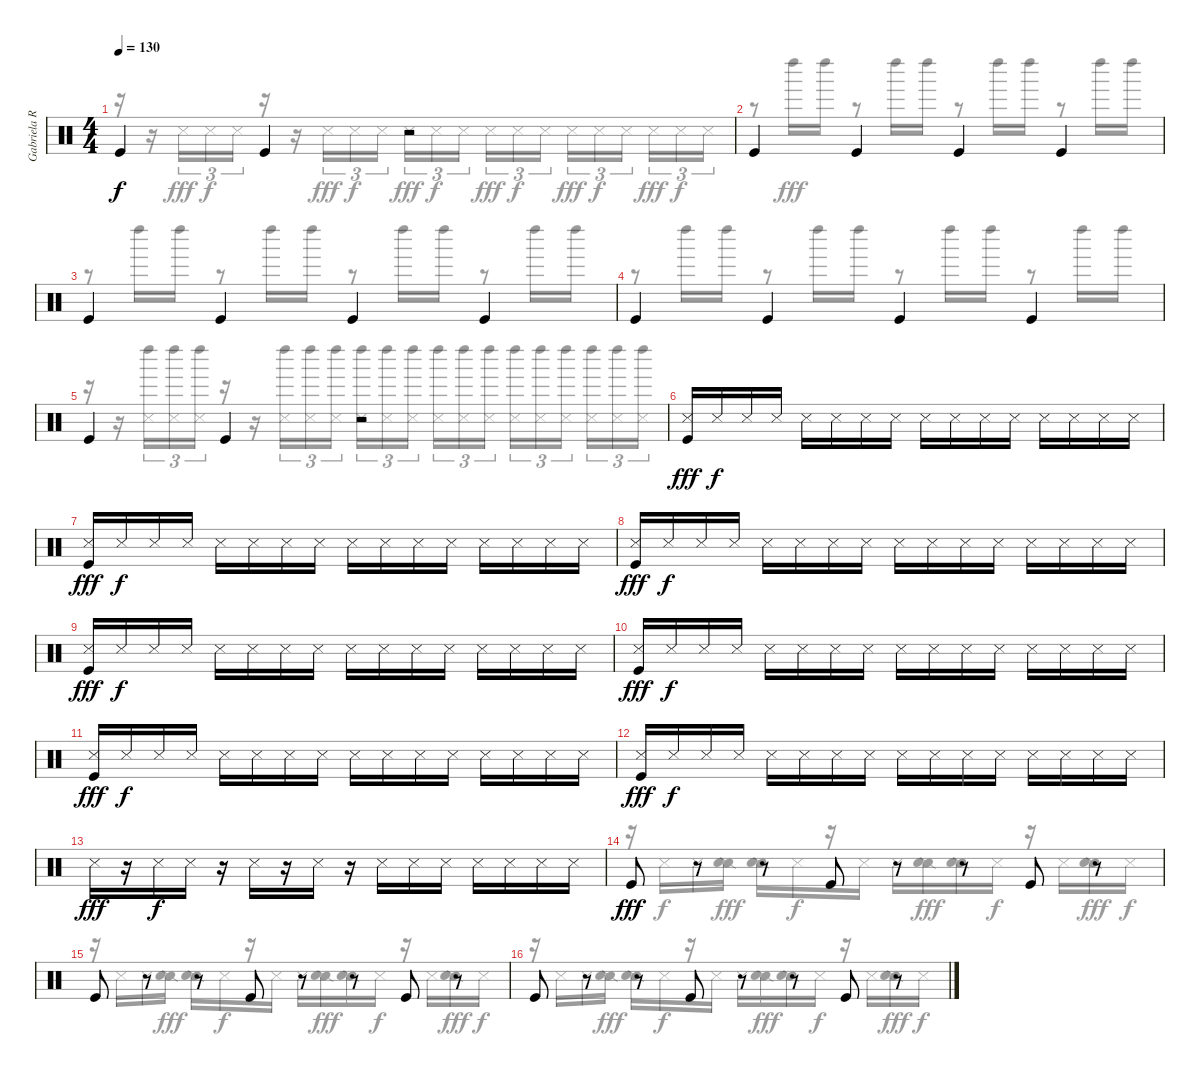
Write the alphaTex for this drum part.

\track ("Gabriela Rythmics" "Gabriela R") {instrument percussion}
\staff {score}
\articulation defaults
\voice
\ts (4 4)
\tempo 130
\clef neutral
\ks c "Kick (hit)".4{dy f} "Kick (hit)".4
r.2 |
"Kick (hit)".4 "Kick (hit)".4 "Kick (hit)".4 "Kick (hit)".4 |
"Kick (hit)".4 "Kick (hit)".4 "Kick (hit)".4 "Kick (hit)".4 |
"Kick (hit)".4 "Kick (hit)".4 "Kick (hit)".4 "Kick (hit)".4 |
"Kick (hit)".4 "Kick (hit)".4 r.2 |
("Snare (side stick) 3" "Kick (hit)").16{dy fff} "Snare (side stick) 3".16{dy f} "Snare (side stick) 3".16 "Snare (side stick) 3".16 "Snare (side stick) 3".16 "Snare (side stick) 3".16 "Snare (side stick) 3".16 "Snare (side stick) 3".16 "Snare (side stick) 3".16 "Snare (side stick) 3".16 "Snare (side stick) 3".16 "Snare (side stick) 3".16 "Snare (side stick) 3".16 "Snare (side stick) 3".16 "Snare (side stick) 3".16 "Snare (side stick) 3".16 |
("Snare (side stick) 3" "Kick (hit)").16{dy fff} "Snare (side stick) 3".16{dy f} "Snare (side stick) 3".16 "Snare (side stick) 3".16 "Snare (side stick) 3".16 "Snare (side stick) 3".16 "Snare (side stick) 3".16 "Snare (side stick) 3".16 "Snare (side stick) 3".16 "Snare (side stick) 3".16 "Snare (side stick) 3".16 "Snare (side stick) 3".16 "Snare (side stick) 3".16 "Snare (side stick) 3".16 "Snare (side stick) 3".16 "Snare (side stick) 3".16 |
("Snare (side stick) 3" "Kick (hit)").16{dy fff} "Snare (side stick) 3".16{dy f} "Snare (side stick) 3".16 "Snare (side stick) 3".16 "Snare (side stick) 3".16 "Snare (side stick) 3".16 "Snare (side stick) 3".16 "Snare (side stick) 3".16 "Snare (side stick) 3".16 "Snare (side stick) 3".16 "Snare (side stick) 3".16 "Snare (side stick) 3".16 "Snare (side stick) 3".16 "Snare (side stick) 3".16 "Snare (side stick) 3".16 "Snare (side stick) 3".16 |
("Snare (side stick) 3" "Kick (hit)").16{dy fff} "Snare (side stick) 3".16{dy f} "Snare (side stick) 3".16 "Snare (side stick) 3".16 "Snare (side stick) 3".16 "Snare (side stick) 3".16 "Snare (side stick) 3".16 "Snare (side stick) 3".16 "Snare (side stick) 3".16 "Snare (side stick) 3".16 "Snare (side stick) 3".16 "Snare (side stick) 3".16 "Snare (side stick) 3".16 "Snare (side stick) 3".16 "Snare (side stick) 3".16 "Snare (side stick) 3".16 |
("Snare (side stick) 3" "Kick (hit)").16{dy fff} "Snare (side stick) 3".16{dy f} "Snare (side stick) 3".16 "Snare (side stick) 3".16 "Snare (side stick) 3".16 "Snare (side stick) 3".16 "Snare (side stick) 3".16 "Snare (side stick) 3".16 "Snare (side stick) 3".16 "Snare (side stick) 3".16 "Snare (side stick) 3".16 "Snare (side stick) 3".16 "Snare (side stick) 3".16 "Snare (side stick) 3".16 "Snare (side stick) 3".16 "Snare (side stick) 3".16 |
("Snare (side stick) 3" "Kick (hit)").16{dy fff} "Snare (side stick) 3".16{dy f} "Snare (side stick) 3".16 "Snare (side stick) 3".16 "Snare (side stick) 3".16 "Snare (side stick) 3".16 "Snare (side stick) 3".16 "Snare (side stick) 3".16 "Snare (side stick) 3".16 "Snare (side stick) 3".16 "Snare (side stick) 3".16 "Snare (side stick) 3".16 "Snare (side stick) 3".16 "Snare (side stick) 3".16 "Snare (side stick) 3".16 "Snare (side stick) 3".16 |
("Snare (side stick) 3" "Kick (hit)").16{dy fff} "Snare (side stick) 3".16{dy f} "Snare (side stick) 3".16 "Snare (side stick) 3".16 "Snare (side stick) 3".16 "Snare (side stick) 3".16 "Snare (side stick) 3".16 "Snare (side stick) 3".16 "Snare (side stick) 3".16 "Snare (side stick) 3".16 "Snare (side stick) 3".16 "Snare (side stick) 3".16 "Snare (side stick) 3".16 "Snare (side stick) 3".16 "Snare (side stick) 3".16 "Snare (side stick) 3".16 |
"Snare (side stick) 3".16{dy fff} r.16 "Snare (side stick) 3".16{dy f} "Snare (side stick) 3".16 r.16 "Snare (side stick) 3".16 r.16 "Snare (side stick) 3".16 r.16 "Snare (side stick) 3".16 "Snare (side stick) 3".16 "Snare (side stick) 3".16 "Snare (side stick) 3".16 "Snare (side stick) 3".16 "Snare (side stick) 3".16 "Snare (side stick) 3".16 |
"Kick (hit)".8{dy fff} r.8 r.8 "Kick (hit)".8 r.8 r.8 "Kick (hit)".8 r.8 |
"Kick (hit)".8 r.8 r.8 "Kick (hit)".8 r.8 r.8 "Kick (hit)".8 r.8 |
"Kick (hit)".8 r.8 r.8 "Kick (hit)".8 r.8 r.8 "Kick (hit)".8 r.8
\voice
\clef neutral
\ottava regular
\simile none
\ks c
r.16{dy fff} r.16 "Snare (side stick) 3".16{tu (3 2)} "Snare (side stick) 3".16{tu (3 2) dy f} "Snare (side stick) 3".16{tu (3 2)} r.16 r.16 "Snare (side stick) 3".16{tu (3 2) dy fff} "Snare (side stick) 3".16{tu (3 2) dy f} "Snare (side stick) 3".16{tu (3 2)} "Snare (side stick) 3".16{tu (3 2) dy fff} "Snare (side stick) 3".16{tu (3 2) dy f} "Snare (side stick) 3".16{tu (3 2) beam splitsecondary} "Snare (side stick) 3".16{tu (3 2) dy fff} "Snare (side stick) 3".16{tu (3 2) dy f} "Snare (side stick) 3".16{tu (3 2)} "Snare (side stick) 3".16{tu (3 2) dy fff} "Snare (side stick) 3".16{tu (3 2) dy f} "Snare (side stick) 3".16{tu (3 2) beam splitsecondary} "Snare (side stick) 3".16{tu (3 2) dy fff} "Snare (side stick) 3".16{tu (3 2) dy f} "Snare (side stick) 3".16{tu (3 2)} |
r.8 "Left Maraca (hit)".16{dy fff} "Left Maraca (hit)".16 r.8 "Left Maraca (hit)".16 "Left Maraca (hit)".16 r.8 "Left Maraca (hit)".16 "Left Maraca (hit)".16 r.8 "Left Maraca (hit)".16 "Left Maraca (hit)".16 |
r.8 "Left Maraca (hit)".16 "Left Maraca (hit)".16 r.8 "Left Maraca (hit)".16 "Left Maraca (hit)".16 r.8 "Left Maraca (hit)".16 "Left Maraca (hit)".16 r.8 "Left Maraca (hit)".16 "Left Maraca (hit)".16 |
r.8 "Left Maraca (hit)".16 "Left Maraca (hit)".16 r.8 "Left Maraca (hit)".16 "Left Maraca (hit)".16 r.8 "Left Maraca (hit)".16 "Left Maraca (hit)".16 r.8 "Left Maraca (hit)".16 "Left Maraca (hit)".16 |
r.16 r.16 ("Left Maraca (hit)" "Snare (side stick) 3").16{tu (3 2)} ("Left Maraca (hit)" "Snare (side stick) 3").16{tu (3 2)} ("Left Maraca (hit)" "Snare (side stick) 3").16{tu (3 2)} r.16 r.16 ("Left Maraca (hit)" "Snare (side stick) 3").16{tu (3 2)} ("Left Maraca (hit)" "Snare (side stick) 3").16{tu (3 2)} ("Left Maraca (hit)" "Snare (side stick) 3").16{tu (3 2)} ("Left Maraca (hit)" "Snare (side stick) 3").16{tu (3 2)} ("Left Maraca (hit)" "Snare (side stick) 3").16{tu (3 2)} ("Left Maraca (hit)" "Snare (side stick) 3").16{tu (3 2) beam splitsecondary} ("Left Maraca (hit)" "Snare (side stick) 3").16{tu (3 2)} ("Left Maraca (hit)" "Snare (side stick) 3").16{tu (3 2)} ("Left Maraca (hit)" "Snare (side stick) 3").16{tu (3 2)} ("Left Maraca (hit)" "Snare (side stick) 3").16{tu (3 2)} ("Left Maraca (hit)" "Snare (side stick) 3").16{tu (3 2)} ("Left Maraca (hit)" "Snare (side stick) 3").16{tu (3 2) beam splitsecondary} ("Left Maraca (hit)" "Snare (side stick) 3").16{tu (3 2)} ("Left Maraca (hit)" "Snare (side stick) 3").16{tu (3 2)} ("Left Maraca (hit)" "Snare (side stick) 3").16{tu (3 2)} |
|
|
|
|
|
|
|
|
r.16 "Snare (side stick) 3".16{dy f} "Snare (side stick) 3".16 ("Snare (side stick) 2" "Electric Snare (hit)").16{dy fff} ("Snare (side stick) 2" "Electric Snare (hit)").16 "Snare (side stick) 3".16{dy f} r.16 "Snare (side stick) 3".16 "Snare (side stick) 3".16 ("Snare (side stick) 2" "Electric Snare (hit)").16{dy fff} ("Snare (side stick) 2" "Electric Snare (hit)").16 "Snare (side stick) 3".16{dy f} r.16 "Snare (side stick) 3".16 ("Snare (side stick) 2" "Electric Snare (hit)").16{dy fff} "Snare (side stick) 3".16{dy f} |
r.16 "Snare (side stick) 3".16 "Snare (side stick) 3".16 ("Snare (side stick) 2" "Electric Snare (hit)").16{dy fff} ("Snare (side stick) 2" "Electric Snare (hit)").16 "Snare (side stick) 3".16{dy f} r.16 "Snare (side stick) 3".16 "Snare (side stick) 3".16 ("Snare (side stick) 2" "Electric Snare (hit)").16{dy fff} ("Snare (side stick) 2" "Electric Snare (hit)").16 "Snare (side stick) 3".16{dy f} r.16 "Snare (side stick) 3".16 ("Snare (side stick) 2" "Electric Snare (hit)").16{dy fff} "Snare (side stick) 3".16{dy f} |
r.16 "Snare (side stick) 3".16 "Snare (side stick) 3".16 ("Snare (side stick) 2" "Electric Snare (hit)").16{dy fff} ("Snare (side stick) 2" "Electric Snare (hit)").16 "Snare (side stick) 3".16{dy f} r.16 "Snare (side stick) 3".16 "Snare (side stick) 3".16 ("Snare (side stick) 2" "Electric Snare (hit)").16{dy fff} ("Snare (side stick) 2" "Electric Snare (hit)").16 "Snare (side stick) 3".16{dy f} r.16 "Snare (side stick) 3".16 ("Snare (side stick) 2" "Electric Snare (hit)").16{dy fff} "Snare (side stick) 3".16{dy f}
